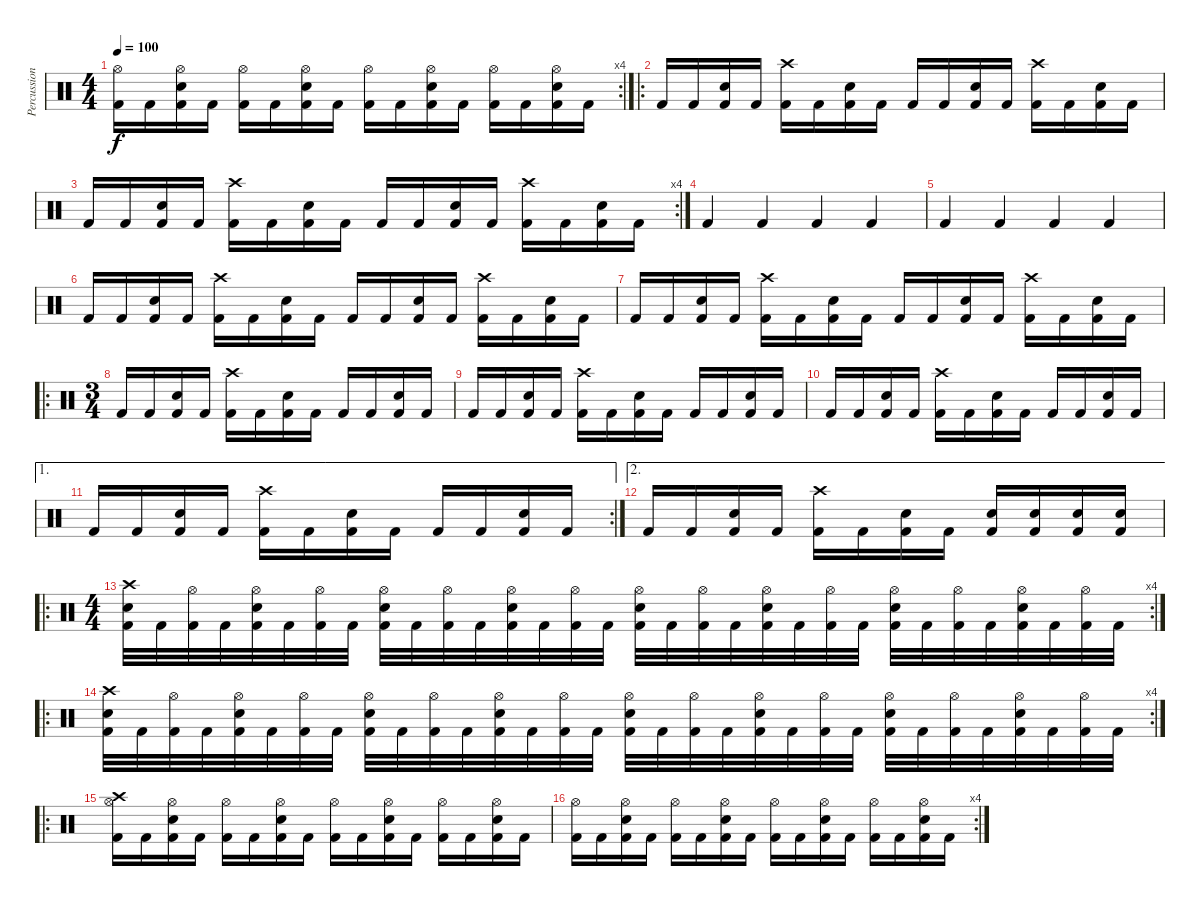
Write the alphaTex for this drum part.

\track ("Percussion" "Percussion") {instrument percussion}
\staff {score}
\articulation defaults
\rc 4
\ts (4 4)
\tempo 100
\clef neutral
\ks c
("Hi-Hat (open)" "Kick (hit) 2").16{dy f} "Kick (hit) 2".16 ("Snare (hit) 2" "Hi-Hat (open)" "Kick (hit) 2").16 "Kick (hit) 2".16 ("Hi-Hat (open)" "Kick (hit) 2").16 "Kick (hit) 2".16 ("Snare (hit) 2" "Hi-Hat (open)" "Kick (hit) 2").16 "Kick (hit) 2".16 ("Hi-Hat (open)" "Kick (hit) 2").16 "Kick (hit) 2".16 ("Snare (hit) 2" "Hi-Hat (open)" "Kick (hit) 2").16 "Kick (hit) 2".16 ("Hi-Hat (open)" "Kick (hit) 2").16 "Kick (hit) 2".16 ("Snare (hit) 2" "Hi-Hat (open)" "Kick (hit) 2").16 "Kick (hit) 2".16 |
\ro "Kick (hit) 2".16 "Kick (hit) 2".16
("Snare (hit) 2" "Kick (hit) 2").16 "Kick (hit) 2".16 ("Crash high (hit)" "Kick (hit) 2").16 "Kick (hit) 2".16 ("Snare (hit) 2" "Kick (hit) 2").16 "Kick (hit) 2".16 "Kick (hit) 2".16 "Kick (hit) 2".16 ("Snare (hit) 2" "Kick (hit) 2").16 "Kick (hit) 2".16 ("Crash high (hit)" "Kick (hit) 2").16 "Kick (hit) 2".16 ("Snare (hit) 2" "Kick (hit) 2").16 "Kick (hit) 2".16 |
\rc 4 "Kick (hit) 2".16 "Kick (hit) 2".16
("Snare (hit) 2" "Kick (hit) 2").16 "Kick (hit) 2".16 ("Crash high (hit)" "Kick (hit) 2").16 "Kick (hit) 2".16 ("Snare (hit) 2" "Kick (hit) 2").16 "Kick (hit) 2".16 "Kick (hit) 2".16 "Kick (hit) 2".16 ("Snare (hit) 2" "Kick (hit) 2").16 "Kick (hit) 2".16 ("Crash high (hit)" "Kick (hit) 2").16 "Kick (hit) 2".16 ("Snare (hit) 2" "Kick (hit) 2").16 "Kick (hit) 2".16 |
"Kick (hit) 2".4 "Kick (hit) 2".4 "Kick (hit) 2".4 "Kick (hit) 2".4 |
"Kick (hit) 2".4 "Kick (hit) 2".4 "Kick (hit) 2".4 "Kick (hit) 2".4 |
"Kick (hit) 2".16 "Kick (hit) 2".16 ("Snare (hit) 2" "Kick (hit) 2").16 "Kick (hit) 2".16 ("Crash high (hit)" "Kick (hit) 2").16 "Kick (hit) 2".16 ("Snare (hit) 2" "Kick (hit) 2").16 "Kick (hit) 2".16 "Kick (hit) 2".16 "Kick (hit) 2".16 ("Snare (hit) 2" "Kick (hit) 2").16 "Kick (hit) 2".16 ("Crash high (hit)" "Kick (hit) 2").16 "Kick (hit) 2".16 ("Snare (hit) 2" "Kick (hit) 2").16 "Kick (hit) 2".16 |
"Kick (hit) 2".16 "Kick (hit) 2".16 ("Snare (hit) 2" "Kick (hit) 2").16 "Kick (hit) 2".16 ("Crash high (hit)" "Kick (hit) 2").16 "Kick (hit) 2".16 ("Snare (hit) 2" "Kick (hit) 2").16 "Kick (hit) 2".16 "Kick (hit) 2".16 "Kick (hit) 2".16 ("Snare (hit) 2" "Kick (hit) 2").16 "Kick (hit) 2".16 ("Crash high (hit)" "Kick (hit) 2").16 "Kick (hit) 2".16 ("Snare (hit) 2" "Kick (hit) 2").16 "Kick (hit) 2".16 |
\ro
\ts (3 4)
"Kick (hit) 2".16 "Kick (hit) 2".16 ("Snare (hit) 2" "Kick (hit) 2").16 "Kick (hit) 2".16 ("Crash high (hit)" "Kick (hit) 2").16 "Kick (hit) 2".16 ("Snare (hit) 2" "Kick (hit) 2").16 "Kick (hit) 2".16 "Kick (hit) 2".16 "Kick (hit) 2".16 ("Snare (hit) 2" "Kick (hit) 2").16 "Kick (hit) 2".16 |
"Kick (hit) 2".16 "Kick (hit) 2".16 ("Snare (hit) 2" "Kick (hit) 2").16 "Kick (hit) 2".16 ("Crash high (hit)" "Kick (hit) 2").16 "Kick (hit) 2".16 ("Snare (hit) 2" "Kick (hit) 2").16 "Kick (hit) 2".16 "Kick (hit) 2".16 "Kick (hit) 2".16 ("Snare (hit) 2" "Kick (hit) 2").16 "Kick (hit) 2".16 |
"Kick (hit) 2".16 "Kick (hit) 2".16 ("Snare (hit) 2" "Kick (hit) 2").16 "Kick (hit) 2".16 ("Crash high (hit)" "Kick (hit) 2").16 "Kick (hit) 2".16 ("Snare (hit) 2" "Kick (hit) 2").16 "Kick (hit) 2".16 "Kick (hit) 2".16 "Kick (hit) 2".16 ("Snare (hit) 2" "Kick (hit) 2").16 "Kick (hit) 2".16 |
\ae 1
\rc 2 "Kick (hit) 2".16 "Kick (hit) 2".16
("Snare (hit) 2" "Kick (hit) 2").16 "Kick (hit) 2".16 ("Crash high (hit)" "Kick (hit) 2").16 "Kick (hit) 2".16 ("Snare (hit) 2" "Kick (hit) 2").16 "Kick (hit) 2".16 "Kick (hit) 2".16 "Kick (hit) 2".16 ("Snare (hit) 2" "Kick (hit) 2").16 "Kick (hit) 2".16 |
\ae 2 "Kick (hit) 2".16 "Kick (hit) 2".16
("Snare (hit) 2" "Kick (hit) 2").16 "Kick (hit) 2".16 ("Crash high (hit)" "Kick (hit) 2").16 "Kick (hit) 2".16 ("Snare (hit) 2" "Kick (hit) 2").16 "Kick (hit) 2".16 ("Snare (hit) 2" "Kick (hit) 2").16 ("Snare (hit) 2" "Kick (hit) 2").16 ("Snare (hit) 2" "Kick (hit) 2").16 ("Snare (hit) 2" "Kick (hit) 2").16 |
\ro
\rc 4
\ts (4 4)
("Crash high (hit)" "Snare (hit) 2" "Kick (hit) 2").32 "Kick (hit) 2".32 ("Hi-Hat (open)" "Kick (hit) 2").32 "Kick (hit) 2".32 ("Hi-Hat (open)" "Snare (hit) 2" "Kick (hit) 2").32 "Kick (hit) 2".32 ("Hi-Hat (open)" "Kick (hit) 2").32 "Kick (hit) 2".32 ("Hi-Hat (open)" "Snare (hit) 2" "Kick (hit) 2").32 "Kick (hit) 2".32 ("Hi-Hat (open)" "Kick (hit) 2").32 "Kick (hit) 2".32 ("Hi-Hat (open)" "Snare (hit) 2" "Kick (hit) 2").32 "Kick (hit) 2".32 ("Hi-Hat (open)" "Kick (hit) 2").32 "Kick (hit) 2".32 ("Hi-Hat (open)" "Snare (hit) 2" "Kick (hit) 2").32 "Kick (hit) 2".32 ("Hi-Hat (open)" "Kick (hit) 2").32 "Kick (hit) 2".32 ("Hi-Hat (open)" "Snare (hit) 2" "Kick (hit) 2").32 "Kick (hit) 2".32 ("Hi-Hat (open)" "Kick (hit) 2").32 "Kick (hit) 2".32 ("Hi-Hat (open)" "Snare (hit) 2" "Kick (hit) 2").32 "Kick (hit) 2".32 ("Hi-Hat (open)" "Kick (hit) 2").32 "Kick (hit) 2".32 ("Hi-Hat (open)" "Snare (hit) 2" "Kick (hit) 2").32 "Kick (hit) 2".32 ("Hi-Hat (open)" "Kick (hit) 2").32 "Kick (hit) 2".32 |
\ro
\rc 4
("Crash high (hit)" "Snare (hit) 2" "Kick (hit) 2").32 "Kick (hit) 2".32 ("Hi-Hat (open)" "Kick (hit) 2").32 "Kick (hit) 2".32 ("Hi-Hat (open)" "Snare (hit) 2" "Kick (hit) 2").32 "Kick (hit) 2".32 ("Hi-Hat (open)" "Kick (hit) 2").32 "Kick (hit) 2".32 ("Hi-Hat (open)" "Snare (hit) 2" "Kick (hit) 2").32 "Kick (hit) 2".32 ("Hi-Hat (open)" "Kick (hit) 2").32 "Kick (hit) 2".32 ("Hi-Hat (open)" "Snare (hit) 2" "Kick (hit) 2").32 "Kick (hit) 2".32 ("Hi-Hat (open)" "Kick (hit) 2").32 "Kick (hit) 2".32 ("Hi-Hat (open)" "Snare (hit) 2" "Kick (hit) 2").32 "Kick (hit) 2".32 ("Hi-Hat (open)" "Kick (hit) 2").32 "Kick (hit) 2".32 ("Hi-Hat (open)" "Snare (hit) 2" "Kick (hit) 2").32 "Kick (hit) 2".32 ("Hi-Hat (open)" "Kick (hit) 2").32 "Kick (hit) 2".32 ("Hi-Hat (open)" "Snare (hit) 2" "Kick (hit) 2").32 "Kick (hit) 2".32 ("Hi-Hat (open)" "Kick (hit) 2").32 "Kick (hit) 2".32 ("Hi-Hat (open)" "Snare (hit) 2" "Kick (hit) 2").32 "Kick (hit) 2".32 ("Hi-Hat (open)" "Kick (hit) 2").32 "Kick (hit) 2".32 |
\ro
("Crash high (hit)" "Hi-Hat (open)" "Kick (hit) 2").16 "Kick (hit) 2".16 ("Snare (hit) 2" "Hi-Hat (open)" "Kick (hit) 2").16 "Kick (hit) 2".16 ("Hi-Hat (open)" "Kick (hit) 2").16 "Kick (hit) 2".16 ("Snare (hit) 2" "Hi-Hat (open)" "Kick (hit) 2").16 "Kick (hit) 2".16 ("Hi-Hat (open)" "Kick (hit) 2").16 "Kick (hit) 2".16 ("Snare (hit) 2" "Hi-Hat (open)" "Kick (hit) 2").16 "Kick (hit) 2".16 ("Hi-Hat (open)" "Kick (hit) 2").16 "Kick (hit) 2".16 ("Snare (hit) 2" "Hi-Hat (open)" "Kick (hit) 2").16 "Kick (hit) 2".16 |
\rc 4
("Hi-Hat (open)" "Kick (hit) 2").16 "Kick (hit) 2".16 ("Snare (hit) 2" "Hi-Hat (open)" "Kick (hit) 2").16 "Kick (hit) 2".16 ("Hi-Hat (open)" "Kick (hit) 2").16 "Kick (hit) 2".16 ("Snare (hit) 2" "Hi-Hat (open)" "Kick (hit) 2").16 "Kick (hit) 2".16 ("Hi-Hat (open)" "Kick (hit) 2").16 "Kick (hit) 2".16 ("Snare (hit) 2" "Hi-Hat (open)" "Kick (hit) 2").16 "Kick (hit) 2".16 ("Hi-Hat (open)" "Kick (hit) 2").16 "Kick (hit) 2".16 ("Snare (hit) 2" "Hi-Hat (open)" "Kick (hit) 2").16 "Kick (hit) 2".16
